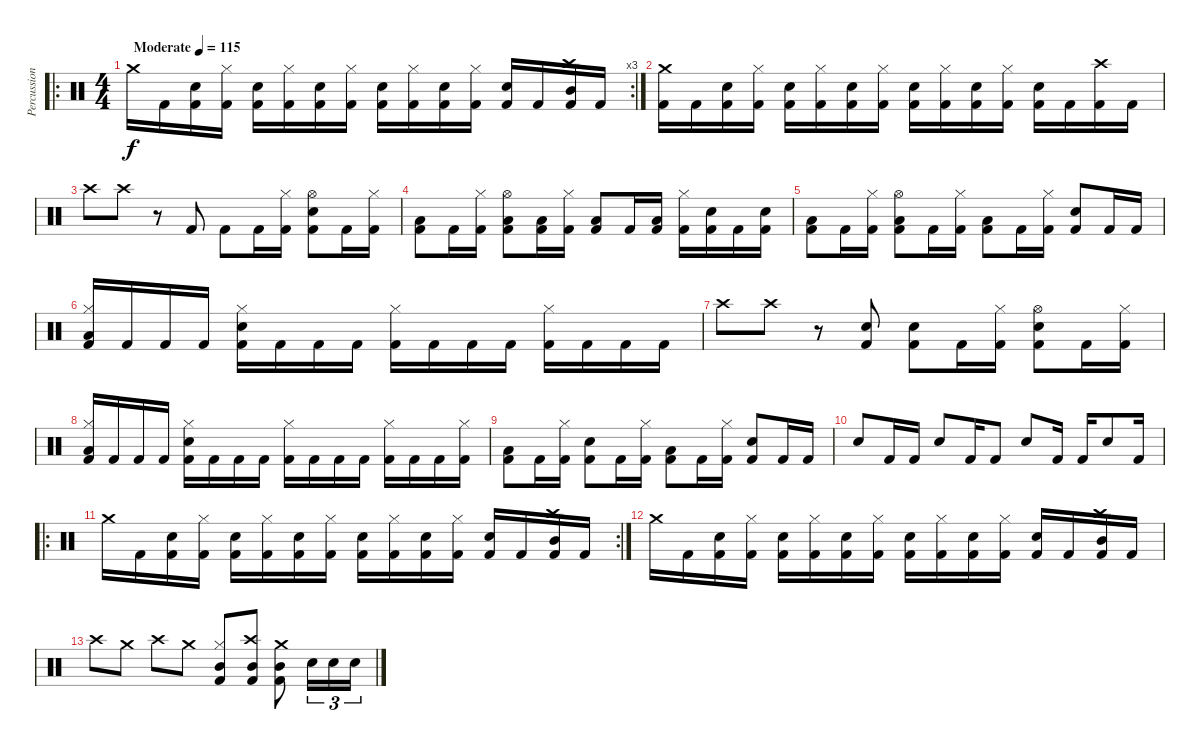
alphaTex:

\track ("Percussion" "Percussion") {instrument percussion}
\staff {score}
\articulation defaults
\ro
\rc 3
\ts (4 4)
\tempo (115 "Moderate")
\clef neutral
\ks c "Crash medium (hit)".16{dy f} "Kick (hit) 2".16
("Snare (hit) 2" "Kick (hit) 2").16 ("Hi-Hat (closed)" "Kick (hit) 2").16 ("Snare (hit) 2" "Kick (hit) 2").16 ("Hi-Hat (closed)" "Kick (hit) 2").16 ("Snare (hit) 2" "Kick (hit) 2").16 ("Hi-Hat (closed)" "Kick (hit) 2").16 ("Snare (hit) 2" "Kick (hit) 2").16 ("Hi-Hat (closed)" "Kick (hit) 2").16 ("Snare (hit) 2" "Kick (hit) 2").16 ("Hi-Hat (closed)" "Kick (hit) 2").16 ("Snare (hit) 2" "Kick (hit) 2").16 "Kick (hit) 2".16 ("Crash high (hit)" "Mid Tom (hit)" "Kick (hit) 2").16 "Kick (hit) 2".16 |
("Crash medium (hit)" "Kick (hit) 2").16 "Kick (hit) 2".16 ("Snare (hit) 2" "Kick (hit) 2").16 ("Hi-Hat (closed)" "Kick (hit) 2").16 ("Snare (hit) 2" "Kick (hit) 2").16 ("Hi-Hat (closed)" "Kick (hit) 2").16 ("Snare (hit) 2" "Kick (hit) 2").16 ("Hi-Hat (closed)" "Kick (hit) 2").16 ("Snare (hit) 2" "Kick (hit) 2").16 ("Hi-Hat (closed)" "Kick (hit) 2").16 ("Snare (hit) 2" "Kick (hit) 2").16 ("Hi-Hat (closed)" "Kick (hit) 2").16 ("Snare (hit) 2" "Kick (hit) 2").16 "Kick (hit) 2".16 ("Crash high (hit)" "Kick (hit) 2").16 "Kick (hit) 2".16 |
"Crash high (hit)".8 "Crash high (hit)".8 r.8 "Kick (hit) 2".8 "Kick (hit) 2".8 "Kick (hit) 2".16 ("Hi-Hat (closed)" "Kick (hit) 2").16 ("Hi-Hat (open)" "Snare (hit) 2" "Kick (hit) 2").8 "Kick (hit) 2".16 ("Hi-Hat (closed)" "Kick (hit) 2").16 |
("Low Tom (hit)" "Kick (hit) 2").8 "Kick (hit) 2".16 ("Hi-Hat (closed)" "Kick (hit) 2").16 ("Hi-Hat (open)" "Low Tom (hit)" "Kick (hit) 2").8 ("Low Tom (hit)" "Kick (hit) 2").16 ("Hi-Hat (closed)" "Kick (hit) 2").16 ("Low Tom (hit)" "Kick (hit) 2").8 "Kick (hit) 2".16 ("Low Tom (hit)" "Kick (hit) 2").16 ("Hi-Hat (closed)" "Kick (hit) 2").16 ("Snare (hit) 2" "Kick (hit) 2").16 "Kick (hit) 2".16 ("Snare (hit) 2" "Kick (hit) 2").16 |
("Low Tom (hit)" "Kick (hit) 2").8 "Kick (hit) 2".16 ("Hi-Hat (closed)" "Kick (hit) 2").16 ("Hi-Hat (open)" "Low Tom (hit)" "Kick (hit) 2").8 "Kick (hit) 2".16 ("Hi-Hat (closed)" "Kick (hit) 2").16 ("Low Tom (hit)" "Kick (hit) 2").8 "Kick (hit) 2".16 ("Hi-Hat (closed)" "Kick (hit) 2").16 ("Snare (hit) 2" "Kick (hit) 2").8 "Kick (hit) 2".16 "Kick (hit) 2".16 |
("Hi-Hat (closed)" "Low Tom (hit)" "Kick (hit) 2").16 "Kick (hit) 2".16 "Kick (hit) 2".16 "Kick (hit) 2".16 ("Hi-Hat (closed)" "Snare (hit) 2" "Kick (hit) 2").16 "Kick (hit) 2".16 "Kick (hit) 2".16 "Kick (hit) 2".16 ("Hi-Hat (closed)" "Kick (hit) 2").16 "Kick (hit) 2".16 "Kick (hit) 2".16 "Kick (hit) 2".16 ("Hi-Hat (closed)" "Kick (hit) 2").16 "Kick (hit) 2".16 "Kick (hit) 2".16 "Kick (hit) 2".16 |
"Crash high (hit)".8 "Crash high (hit)".8 r.8 ("Snare (hit) 2" "Kick (hit) 2").8 ("Snare (hit) 2" "Kick (hit) 2").8 "Kick (hit) 2".16 ("Hi-Hat (closed)" "Kick (hit) 2").16 ("Hi-Hat (open)" "Snare (hit) 2" "Kick (hit) 2").8 "Kick (hit) 2".16 ("Hi-Hat (closed)" "Kick (hit) 2").16 |
("Hi-Hat (closed)" "Low Tom (hit)" "Kick (hit) 2").16 "Kick (hit) 2".16 "Kick (hit) 2".16 "Kick (hit) 2".16 ("Hi-Hat (closed)" "Snare (hit) 2" "Kick (hit) 2").16 "Kick (hit) 2".16 "Kick (hit) 2".16 "Kick (hit) 2".16 ("Hi-Hat (closed)" "Kick (hit) 2").16 "Kick (hit) 2".16 "Kick (hit) 2".16 "Kick (hit) 2".16 ("Hi-Hat (closed)" "Kick (hit) 2").16 "Kick (hit) 2".16 "Kick (hit) 2".16 ("Hi-Hat (closed)" "Kick (hit) 2").16 |
("Low Floor Tom (hit)" "Kick (hit) 2").8 "Kick (hit) 2".16 ("Hi-Hat (closed)" "Kick (hit) 2").16 ("Snare (hit) 2" "Kick (hit) 2").8 "Kick (hit) 2".16 ("Hi-Hat (closed)" "Kick (hit) 2").16 ("Low Floor Tom (hit)" "Kick (hit) 2").8 "Kick (hit) 2".16 ("Hi-Hat (closed)" "Kick (hit) 2").16 ("Snare (hit) 2" "Kick (hit) 2").8 "Kick (hit) 2".16 "Kick (hit) 2".16 |
"Snare (hit) 2".8 "Kick (hit) 2".16 "Kick (hit) 2".16 "Snare (hit) 2".8 "Kick (hit) 2".16 "Kick (hit) 2".8 "Snare (hit) 2".8 "Kick (hit) 2".16 "Kick (hit) 2".16 "Snare (hit) 2".8 "Kick (hit) 2".16 |
\ro
\rc 2 "Crash medium (hit)".16 "Kick (hit) 2".16
("Snare (hit) 2" "Kick (hit) 2").16 ("Hi-Hat (closed)" "Kick (hit) 2").16 ("Snare (hit) 2" "Kick (hit) 2").16 ("Hi-Hat (closed)" "Kick (hit) 2").16 ("Snare (hit) 2" "Kick (hit) 2").16 ("Hi-Hat (closed)" "Kick (hit) 2").16 ("Snare (hit) 2" "Kick (hit) 2").16 ("Hi-Hat (closed)" "Kick (hit) 2").16 ("Snare (hit) 2" "Kick (hit) 2").16 ("Hi-Hat (closed)" "Kick (hit) 2").16 ("Snare (hit) 2" "Kick (hit) 2").16 "Kick (hit) 2".16 ("Crash high (hit)" "Mid Tom (hit)" "Kick (hit) 2").16 "Kick (hit) 2".16 |
"Crash medium (hit)".16 "Kick (hit) 2".16 ("Snare (hit) 2" "Kick (hit) 2").16 ("Hi-Hat (closed)" "Kick (hit) 2").16 ("Snare (hit) 2" "Kick (hit) 2").16 ("Hi-Hat (closed)" "Kick (hit) 2").16 ("Snare (hit) 2" "Kick (hit) 2").16 ("Hi-Hat (closed)" "Kick (hit) 2").16 ("Snare (hit) 2" "Kick (hit) 2").16 ("Hi-Hat (closed)" "Kick (hit) 2").16 ("Snare (hit) 2" "Kick (hit) 2").16 ("Hi-Hat (closed)" "Kick (hit) 2").16 ("Snare (hit) 2" "Kick (hit) 2").16 "Kick (hit) 2".16 ("Crash high (hit)" "Mid Tom (hit)" "Kick (hit) 2").16 "Kick (hit) 2".16 |
"Crash high (hit)".8 "Crash medium (hit)".8 "Crash high (hit)".8 "Crash medium (hit)".8 ("Hi-Hat (closed)" "Mid Tom (hit)" "Kick (hit) 2").8 ("Crash high (hit)" "Mid Tom (hit)" "Kick (hit) 2").8 ("Crash medium (hit)" "Mid Tom (hit)" "Kick (hit) 2").8 "Snare (hit) 2".16{tu (3 2)} "Snare (hit) 2".16{tu (3 2)} "Snare (hit) 2".16{tu (3 2)}
